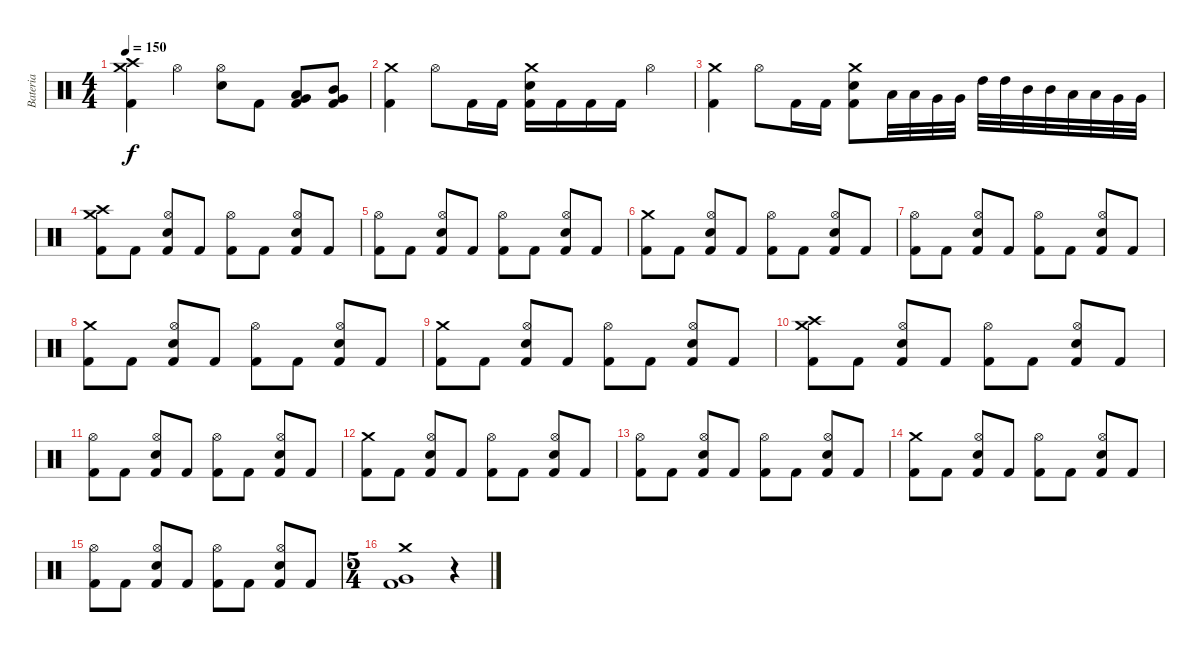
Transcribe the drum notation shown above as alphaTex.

\track ("Bateria" "Bateria") {instrument percussion}
\staff {score}
\articulation defaults
\ts (4 4)
\tempo 150
\clef neutral
\ks c
("Crash high (hit)" "Crash medium (hit)" "Kick (hit) 2").4{dy f} "Hi-Hat (open)".4 ("Hi-Hat (open)" "Snare (hit) 2").8 "Kick (hit) 2".8 ("Low Tom (hit)" "Very Low Tom (hit)" "Kick (hit) 2").8 ("Mid Tom (hit)" "Very Low Tom (hit)" "Kick (hit) 2").8 |
("Crash medium (hit)" "Kick (hit) 2").4 "Hi-Hat (open)".8 "Kick (hit) 2".16 "Kick (hit) 2".16 ("Crash medium (hit)" "Snare (hit) 2" "Kick (hit) 2").16 "Kick (hit) 2".16 "Kick (hit) 2".16 "Kick (hit) 2".16 "Hi-Hat (open)".4 |
("Crash medium (hit)" "Kick (hit) 2").4 "Hi-Hat (open)".8 "Kick (hit) 2".16 "Kick (hit) 2".16 ("Crash medium (hit)" "Snare (hit) 2" "Kick (hit) 2").8 "Low Tom (hit)".32 "Low Tom (hit)".32 "Very Low Tom (hit)".32 "Very Low Tom (hit)".32 "High Tom (hit)".32 "High Tom (hit)".32 "Mid Tom (hit)".32 "Mid Tom (hit)".32 "Low Tom (hit)".32 "Low Tom (hit)".32 "Very Low Tom (hit)".32 "Very Low Tom (hit)".32 |
("Crash high (hit)" "Crash medium (hit)" "Kick (hit) 2").8 "Kick (hit) 2".8 ("Hi-Hat (open)" "Snare (hit) 2" "Kick (hit) 2").8 "Kick (hit) 2".8 ("Hi-Hat (open)" "Kick (hit) 2").8 "Kick (hit) 2".8 ("Hi-Hat (open)" "Snare (hit) 2" "Kick (hit) 2").8 "Kick (hit) 2".8 |
("Hi-Hat (open)" "Kick (hit) 2").8 "Kick (hit) 2".8 ("Hi-Hat (open)" "Snare (hit) 2" "Kick (hit) 2").8 "Kick (hit) 2".8 ("Hi-Hat (open)" "Kick (hit) 2").8 "Kick (hit) 2".8 ("Hi-Hat (open)" "Snare (hit) 2" "Kick (hit) 2").8 "Kick (hit) 2".8 |
("Crash medium (hit)" "Kick (hit) 2").8 "Kick (hit) 2".8 ("Hi-Hat (open)" "Snare (hit) 2" "Kick (hit) 2").8 "Kick (hit) 2".8 ("Hi-Hat (open)" "Kick (hit) 2").8 "Kick (hit) 2".8 ("Hi-Hat (open)" "Snare (hit) 2" "Kick (hit) 2").8 "Kick (hit) 2".8 |
("Hi-Hat (open)" "Kick (hit) 2").8 "Kick (hit) 2".8 ("Hi-Hat (open)" "Snare (hit) 2" "Kick (hit) 2").8 "Kick (hit) 2".8 ("Hi-Hat (open)" "Kick (hit) 2").8 "Kick (hit) 2".8 ("Hi-Hat (open)" "Snare (hit) 2" "Kick (hit) 2").8 "Kick (hit) 2".8 |
("Crash medium (hit)" "Kick (hit) 2").8 "Kick (hit) 2".8 ("Hi-Hat (open)" "Snare (hit) 2" "Kick (hit) 2").8 "Kick (hit) 2".8 ("Hi-Hat (open)" "Kick (hit) 2").8 "Kick (hit) 2".8 ("Hi-Hat (open)" "Snare (hit) 2" "Kick (hit) 2").8 "Kick (hit) 2".8 |
("Crash medium (hit)" "Kick (hit) 2").8 "Kick (hit) 2".8 ("Hi-Hat (open)" "Snare (hit) 2" "Kick (hit) 2").8 "Kick (hit) 2".8 ("Hi-Hat (open)" "Kick (hit) 2").8 "Kick (hit) 2".8 ("Hi-Hat (open)" "Snare (hit) 2" "Kick (hit) 2").8 "Kick (hit) 2".8 |
("Crash high (hit)" "Crash medium (hit)" "Kick (hit) 2").8 "Kick (hit) 2".8 ("Hi-Hat (open)" "Snare (hit) 2" "Kick (hit) 2").8 "Kick (hit) 2".8 ("Hi-Hat (open)" "Kick (hit) 2").8 "Kick (hit) 2".8 ("Hi-Hat (open)" "Snare (hit) 2" "Kick (hit) 2").8 "Kick (hit) 2".8 |
("Hi-Hat (open)" "Kick (hit) 2").8 "Kick (hit) 2".8 ("Hi-Hat (open)" "Snare (hit) 2" "Kick (hit) 2").8 "Kick (hit) 2".8 ("Hi-Hat (open)" "Kick (hit) 2").8 "Kick (hit) 2".8 ("Hi-Hat (open)" "Snare (hit) 2" "Kick (hit) 2").8 "Kick (hit) 2".8 |
("Crash medium (hit)" "Kick (hit) 2").8 "Kick (hit) 2".8 ("Hi-Hat (open)" "Snare (hit) 2" "Kick (hit) 2").8 "Kick (hit) 2".8 ("Hi-Hat (open)" "Kick (hit) 2").8 "Kick (hit) 2".8 ("Hi-Hat (open)" "Snare (hit) 2" "Kick (hit) 2").8 "Kick (hit) 2".8 |
("Hi-Hat (open)" "Kick (hit) 2").8 "Kick (hit) 2".8 ("Hi-Hat (open)" "Snare (hit) 2" "Kick (hit) 2").8 "Kick (hit) 2".8 ("Hi-Hat (open)" "Kick (hit) 2").8 "Kick (hit) 2".8 ("Hi-Hat (open)" "Snare (hit) 2" "Kick (hit) 2").8 "Kick (hit) 2".8 |
("Crash medium (hit)" "Kick (hit) 2").8 "Kick (hit) 2".8 ("Hi-Hat (open)" "Snare (hit) 2" "Kick (hit) 2").8 "Kick (hit) 2".8 ("Hi-Hat (open)" "Kick (hit) 2").8 "Kick (hit) 2".8 ("Hi-Hat (open)" "Snare (hit) 2" "Kick (hit) 2").8 "Kick (hit) 2".8 |
("Hi-Hat (open)" "Kick (hit) 2").8 "Kick (hit) 2".8 ("Hi-Hat (open)" "Snare (hit) 2" "Kick (hit) 2").8 "Kick (hit) 2".8 ("Hi-Hat (open)" "Kick (hit) 2").8 "Kick (hit) 2".8 ("Hi-Hat (open)" "Snare (hit) 2" "Kick (hit) 2").8 "Kick (hit) 2".8 |
\ts (5 4)
("Crash medium (hit)" "Very Low Tom (hit)" "Kick (hit) 2").1 r.4
